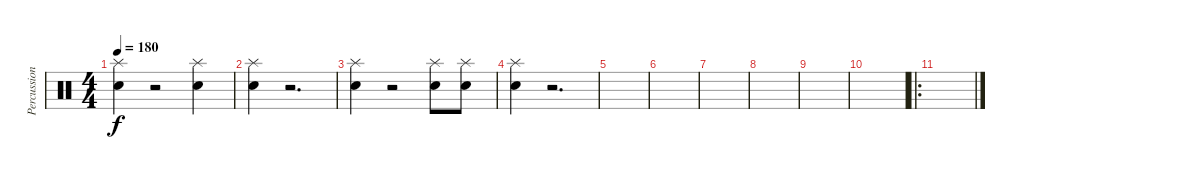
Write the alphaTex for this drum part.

\track ("Percussion" "Percussion") {instrument percussion}
\staff {score}
\articulation defaults
\ts (4 4)
\tempo 180
\clef neutral
\ks c
("Splash (hit)" "Snare (hit) 2").4{dy f} r.2 ("Splash (hit)" "Snare (hit) 2").4 |
("Splash (hit)" "Snare (hit) 2").4 r.2{d} |
("Splash (hit)" "Snare (hit) 2").4 r.2 ("Splash (hit)" "Snare (hit) 2").8 ("Splash (hit)" "Snare (hit) 2").8 |
("Splash (hit)" "Snare (hit) 2").4 r.2{d} |
|
|
|
|
|
|
\ro
